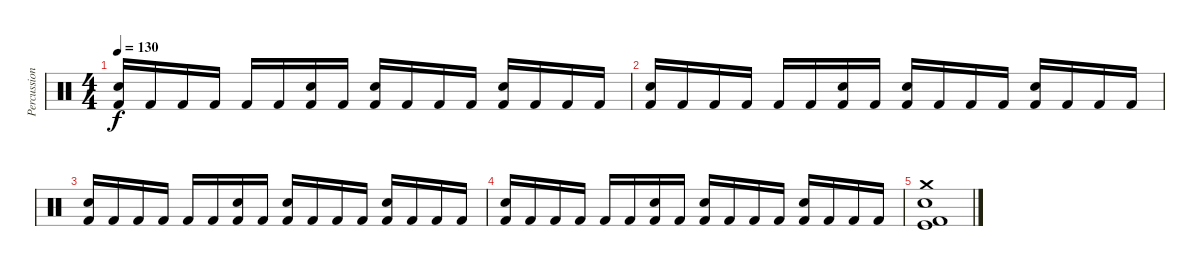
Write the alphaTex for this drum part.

\track ("Percussion" "Percussion") {instrument percussion}
\staff {score}
\articulation defaults
\ts (4 4)
\tempo 130
\clef neutral
\ks c
("Electric Snare (hit)" "Kick (hit) 2").16{dy f} "Kick (hit) 2".16 "Kick (hit) 2".16 "Kick (hit) 2".16 "Kick (hit) 2".16 "Kick (hit) 2".16 ("Electric Snare (hit)" "Kick (hit) 2").16 "Kick (hit) 2".16 ("Electric Snare (hit)" "Kick (hit) 2").16 "Kick (hit) 2".16 "Kick (hit) 2".16 "Kick (hit) 2".16 ("Electric Snare (hit)" "Kick (hit) 2").16 "Kick (hit) 2".16 "Kick (hit) 2".16 "Kick (hit) 2".16 |
("Electric Snare (hit)" "Kick (hit) 2").16 "Kick (hit) 2".16 "Kick (hit) 2".16 "Kick (hit) 2".16 "Kick (hit) 2".16 "Kick (hit) 2".16 ("Electric Snare (hit)" "Kick (hit) 2").16 "Kick (hit) 2".16 ("Electric Snare (hit)" "Kick (hit) 2").16 "Kick (hit) 2".16 "Kick (hit) 2".16 "Kick (hit) 2".16 ("Electric Snare (hit)" "Kick (hit) 2").16 "Kick (hit) 2".16 "Kick (hit) 2".16 "Kick (hit) 2".16 |
("Electric Snare (hit)" "Kick (hit) 2").16 "Kick (hit) 2".16 "Kick (hit) 2".16 "Kick (hit) 2".16 "Kick (hit) 2".16 "Kick (hit) 2".16 ("Electric Snare (hit)" "Kick (hit) 2").16 "Kick (hit) 2".16 ("Electric Snare (hit)" "Kick (hit) 2").16 "Kick (hit) 2".16 "Kick (hit) 2".16 "Kick (hit) 2".16 ("Electric Snare (hit)" "Kick (hit) 2").16 "Kick (hit) 2".16 "Kick (hit) 2".16 "Kick (hit) 2".16 |
("Electric Snare (hit)" "Kick (hit) 2").16 "Kick (hit) 2".16 "Kick (hit) 2".16 "Kick (hit) 2".16 "Kick (hit) 2".16 "Kick (hit) 2".16 ("Electric Snare (hit)" "Kick (hit) 2").16 "Kick (hit) 2".16 ("Electric Snare (hit)" "Kick (hit) 2").16 "Kick (hit) 2".16 "Kick (hit) 2".16 "Kick (hit) 2".16 ("Electric Snare (hit)" "Kick (hit) 2").16 "Kick (hit) 2".16 "Kick (hit) 2".16 "Kick (hit) 2".16 |
("Crash medium (hit)" "Electric Snare (hit)" "Kick (hit)" "Kick (hit) 2").1
